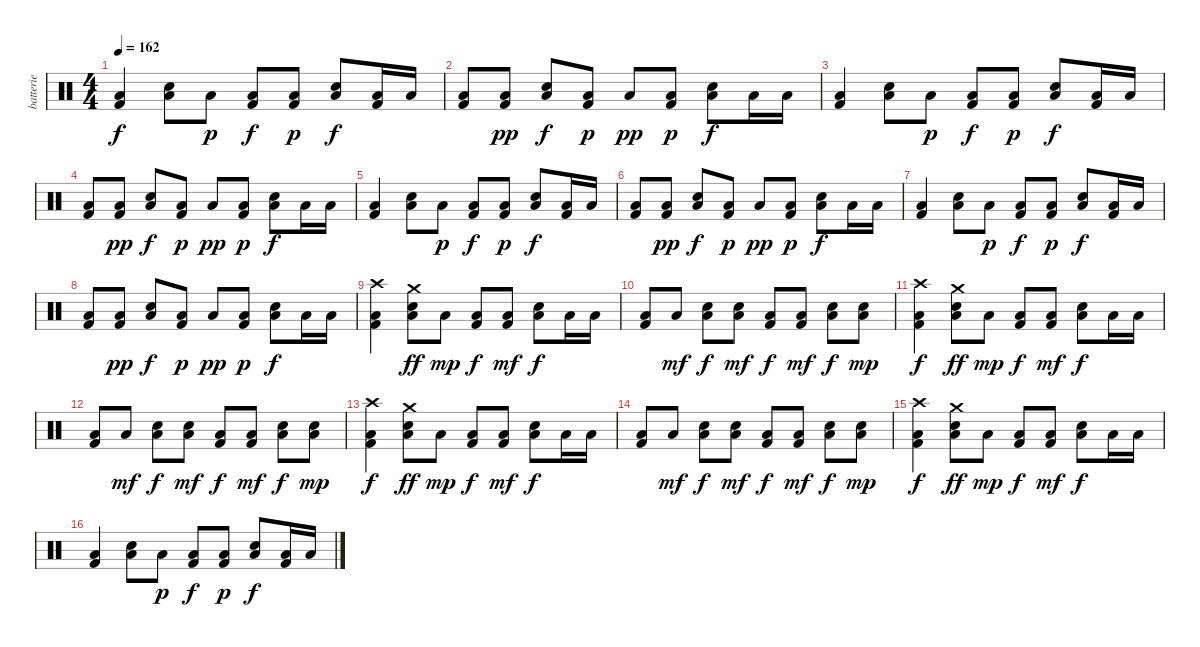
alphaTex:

\track ("batterie" "batterie") {instrument percussion}
\staff {score}
\articulation defaults
\ts (4 4)
\tempo 162
\clef neutral
\ks c
("Low Floor Tom (hit)" "Kick (hit) 2").4{dy f} ("Low Floor Tom (hit)" "Electric Snare (hit)").8 "Low Floor Tom (hit)".8{dy p} ("Low Floor Tom (hit)" "Kick (hit) 2").8{dy f} ("Low Floor Tom (hit)" "Kick (hit) 2").8{dy p} ("Low Floor Tom (hit)" "Electric Snare (hit)").8{dy f} ("Low Floor Tom (hit)" "Kick (hit) 2").16 "Low Floor Tom (hit)".16 |
("Low Floor Tom (hit)" "Kick (hit) 2").8 ("Low Floor Tom (hit)" "Kick (hit) 2").8{dy pp} ("Low Floor Tom (hit)" "Electric Snare (hit)").8{dy f} ("Low Floor Tom (hit)" "Kick (hit) 2").8{dy p} "Low Floor Tom (hit)".8{dy pp} ("Low Floor Tom (hit)" "Kick (hit) 2").8{dy p} ("Low Floor Tom (hit)" "Electric Snare (hit)").8{dy f} "Low Floor Tom (hit)".16 "Low Floor Tom (hit)".16 |
("Low Floor Tom (hit)" "Kick (hit) 2").4 ("Low Floor Tom (hit)" "Electric Snare (hit)").8 "Low Floor Tom (hit)".8{dy p} ("Low Floor Tom (hit)" "Kick (hit) 2").8{dy f} ("Low Floor Tom (hit)" "Kick (hit) 2").8{dy p} ("Low Floor Tom (hit)" "Electric Snare (hit)").8{dy f} ("Low Floor Tom (hit)" "Kick (hit) 2").16 "Low Floor Tom (hit)".16 |
("Low Floor Tom (hit)" "Kick (hit) 2").8 ("Low Floor Tom (hit)" "Kick (hit) 2").8{dy pp} ("Low Floor Tom (hit)" "Electric Snare (hit)").8{dy f} ("Low Floor Tom (hit)" "Kick (hit) 2").8{dy p} "Low Floor Tom (hit)".8{dy pp} ("Low Floor Tom (hit)" "Kick (hit) 2").8{dy p} ("Low Floor Tom (hit)" "Electric Snare (hit)").8{dy f} "Low Floor Tom (hit)".16 "Low Floor Tom (hit)".16 |
("Low Floor Tom (hit)" "Kick (hit) 2").4 ("Low Floor Tom (hit)" "Electric Snare (hit)").8 "Low Floor Tom (hit)".8{dy p} ("Low Floor Tom (hit)" "Kick (hit) 2").8{dy f} ("Low Floor Tom (hit)" "Kick (hit) 2").8{dy p} ("Low Floor Tom (hit)" "Electric Snare (hit)").8{dy f} ("Low Floor Tom (hit)" "Kick (hit) 2").16 "Low Floor Tom (hit)".16 |
("Low Floor Tom (hit)" "Kick (hit) 2").8 ("Low Floor Tom (hit)" "Kick (hit) 2").8{dy pp} ("Low Floor Tom (hit)" "Electric Snare (hit)").8{dy f} ("Low Floor Tom (hit)" "Kick (hit) 2").8{dy p} "Low Floor Tom (hit)".8{dy pp} ("Low Floor Tom (hit)" "Kick (hit) 2").8{dy p} ("Low Floor Tom (hit)" "Electric Snare (hit)").8{dy f} "Low Floor Tom (hit)".16 "Low Floor Tom (hit)".16 |
("Low Floor Tom (hit)" "Kick (hit) 2").4 ("Low Floor Tom (hit)" "Electric Snare (hit)").8 "Low Floor Tom (hit)".8{dy p} ("Low Floor Tom (hit)" "Kick (hit) 2").8{dy f} ("Low Floor Tom (hit)" "Kick (hit) 2").8{dy p} ("Low Floor Tom (hit)" "Electric Snare (hit)").8{dy f} ("Low Floor Tom (hit)" "Kick (hit) 2").16 "Low Floor Tom (hit)".16 |
("Low Floor Tom (hit)" "Kick (hit) 2").8 ("Low Floor Tom (hit)" "Kick (hit) 2").8{dy pp} ("Low Floor Tom (hit)" "Electric Snare (hit)").8{dy f} ("Low Floor Tom (hit)" "Kick (hit) 2").8{dy p} "Low Floor Tom (hit)".8{dy pp} ("Low Floor Tom (hit)" "Kick (hit) 2").8{dy p} ("Low Floor Tom (hit)" "Electric Snare (hit)").8{dy f} "Low Floor Tom (hit)".16 "Low Floor Tom (hit)".16 |
("Low Floor Tom (hit)" "Crash high (hit)" "Kick (hit) 2").4 ("Low Floor Tom (hit)" "Crash medium (hit)" "Electric Snare (hit)").8{dy ff} "Low Floor Tom (hit)".8{dy mp} ("Low Floor Tom (hit)" "Kick (hit) 2").8{dy f} ("Low Floor Tom (hit)" "Kick (hit) 2").8{dy mf} ("Low Floor Tom (hit)" "Electric Snare (hit)").8{dy f} "Low Floor Tom (hit)".16 "Low Floor Tom (hit)".16 |
("Low Floor Tom (hit)" "Kick (hit) 2").8 "Low Floor Tom (hit)".8{dy mf} ("Low Floor Tom (hit)" "Electric Snare (hit)").8{dy f} ("Low Floor Tom (hit)" "Electric Snare (hit)").8{dy mf} ("Low Floor Tom (hit)" "Kick (hit) 2").8{dy f} ("Low Floor Tom (hit)" "Kick (hit) 2").8{dy mf} ("Low Floor Tom (hit)" "Electric Snare (hit)").8{dy f} ("Low Floor Tom (hit)" "Electric Snare (hit)").8{dy mp} |
("Low Floor Tom (hit)" "Crash high (hit)" "Kick (hit) 2").4{dy f} ("Low Floor Tom (hit)" "Crash medium (hit)" "Electric Snare (hit)").8{dy ff} "Low Floor Tom (hit)".8{dy mp} ("Low Floor Tom (hit)" "Kick (hit) 2").8{dy f} ("Low Floor Tom (hit)" "Kick (hit) 2").8{dy mf} ("Low Floor Tom (hit)" "Electric Snare (hit)").8{dy f} "Low Floor Tom (hit)".16 "Low Floor Tom (hit)".16 |
("Low Floor Tom (hit)" "Kick (hit) 2").8 "Low Floor Tom (hit)".8{dy mf} ("Low Floor Tom (hit)" "Electric Snare (hit)").8{dy f} ("Low Floor Tom (hit)" "Electric Snare (hit)").8{dy mf} ("Low Floor Tom (hit)" "Kick (hit) 2").8{dy f} ("Low Floor Tom (hit)" "Kick (hit) 2").8{dy mf} ("Low Floor Tom (hit)" "Electric Snare (hit)").8{dy f} ("Low Floor Tom (hit)" "Electric Snare (hit)").8{dy mp} |
("Low Floor Tom (hit)" "Crash high (hit)" "Kick (hit) 2").4{dy f} ("Low Floor Tom (hit)" "Crash medium (hit)" "Electric Snare (hit)").8{dy ff} "Low Floor Tom (hit)".8{dy mp} ("Low Floor Tom (hit)" "Kick (hit) 2").8{dy f} ("Low Floor Tom (hit)" "Kick (hit) 2").8{dy mf} ("Low Floor Tom (hit)" "Electric Snare (hit)").8{dy f} "Low Floor Tom (hit)".16 "Low Floor Tom (hit)".16 |
("Low Floor Tom (hit)" "Kick (hit) 2").8 "Low Floor Tom (hit)".8{dy mf} ("Low Floor Tom (hit)" "Electric Snare (hit)").8{dy f} ("Low Floor Tom (hit)" "Electric Snare (hit)").8{dy mf} ("Low Floor Tom (hit)" "Kick (hit) 2").8{dy f} ("Low Floor Tom (hit)" "Kick (hit) 2").8{dy mf} ("Low Floor Tom (hit)" "Electric Snare (hit)").8{dy f} ("Low Floor Tom (hit)" "Electric Snare (hit)").8{dy mp} |
("Low Floor Tom (hit)" "Crash high (hit)" "Kick (hit) 2").4{dy f} ("Low Floor Tom (hit)" "Crash medium (hit)" "Electric Snare (hit)").8{dy ff} "Low Floor Tom (hit)".8{dy mp} ("Low Floor Tom (hit)" "Kick (hit) 2").8{dy f} ("Low Floor Tom (hit)" "Kick (hit) 2").8{dy mf} ("Low Floor Tom (hit)" "Electric Snare (hit)").8{dy f} "Low Floor Tom (hit)".16 "Low Floor Tom (hit)".16 |
("Low Floor Tom (hit)" "Kick (hit) 2").4 ("Low Floor Tom (hit)" "Electric Snare (hit)").8 "Low Floor Tom (hit)".8{dy p} ("Low Floor Tom (hit)" "Kick (hit) 2").8{dy f} ("Low Floor Tom (hit)" "Kick (hit) 2").8{dy p} ("Low Floor Tom (hit)" "Electric Snare (hit)").8{dy f} ("Low Floor Tom (hit)" "Kick (hit) 2").16 "Low Floor Tom (hit)".16
